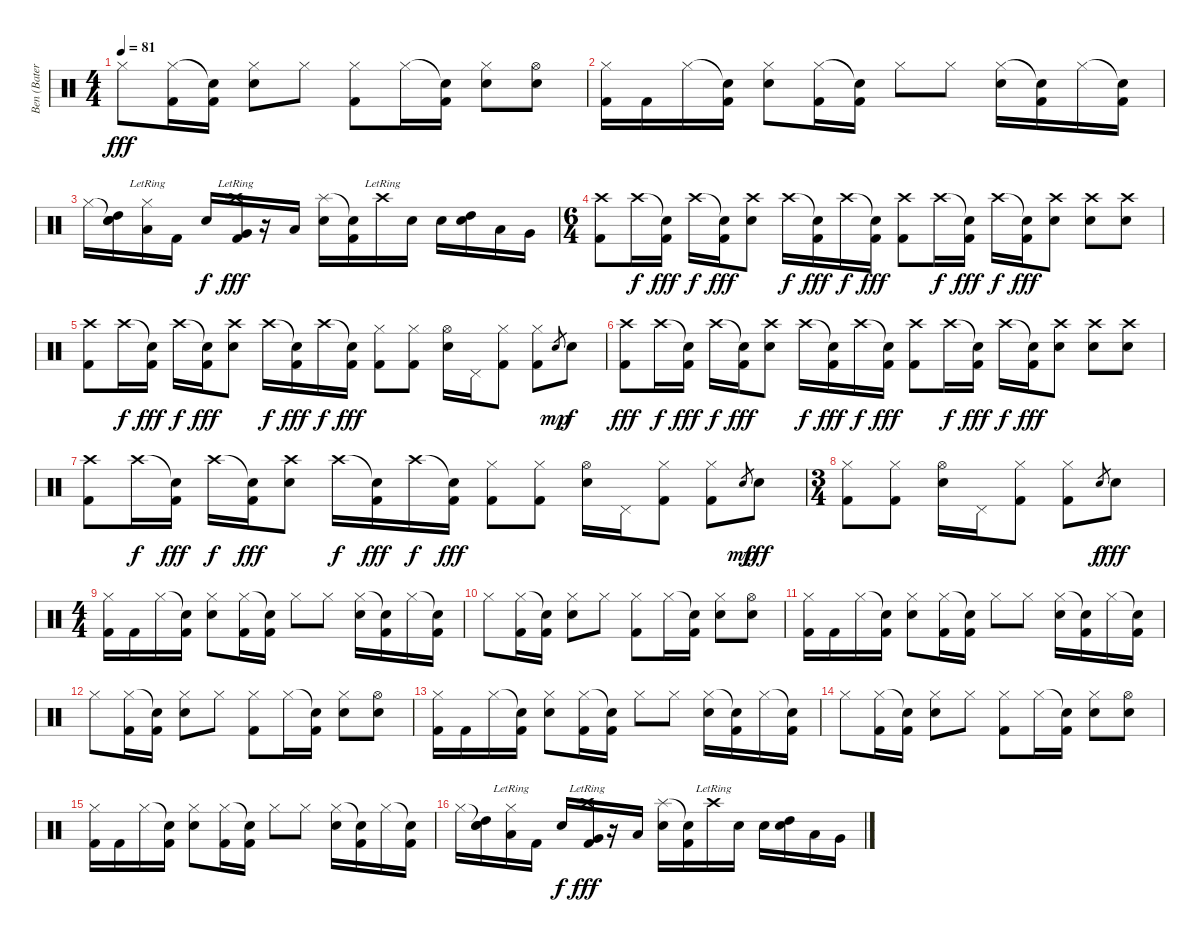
\track ("Ben (Bateria)" "Ben (Bater") {instrument percussion}
\staff {score}
\articulation defaults
\ts (4 4)
\tempo 81
\clef neutral
\ks c "Hi-Hat (closed)".8{dy fff}
("Hi-Hat (closed)" "Kick (hit) 2").16 ("Snare (hit)"{t} "Kick (hit) 2").16 ("Hi-Hat (closed)" "Snare (hit) 2").8 "Hi-Hat (closed)".8 ("Hi-Hat (closed)" "Kick (hit) 2").8 "Hi-Hat (closed)".16 ("Snare (hit)"{t} "Kick (hit) 2").16 ("Hi-Hat (closed)" "Snare (hit) 2").8 ("Hi-Hat (open)" "Snare (hit) 2").8 |
("Hi-Hat (closed)" "Kick (hit) 2").16 "Kick (hit) 2".16 "Hi-Hat (closed)".16 ("Snare (hit)"{t} "Kick (hit) 2").16 ("Hi-Hat (closed)" "Snare (hit) 2").8 ("Hi-Hat (closed)" "Kick (hit) 2").16 ("Snare (hit)"{t} "Kick (hit) 2").16 "Hi-Hat (closed)".8 "Hi-Hat (closed)".8 ("Hi-Hat (closed)" "Snare (hit) 2").16 ("Snare (hit)"{t} "Kick (hit) 2").16 "Hi-Hat (closed)".16 ("Snare (hit)"{t} "Kick (hit) 2").16 |
"Hi-Hat (closed)".16 ("Snare (hit)"{t} "Snare (hit) 2" "High Tom (hit)").16 ("Hi-Hat (closed)"{lr} "Low Tom (hit)").16 "Kick (hit) 2".16 "Snare (hit) 2".16{dy f} ("Crash high (hit)"{lr} "Very Low Tom (hit)" "Kick (hit) 2").16{dy fff} r.16 "Low Tom (hit)".16 ("Splash (hit)" "Snare (hit) 2").16 ("Snare (hit)"{t} "Kick (hit) 2").16 "Crash high (hit)"{lr}.16 "Snare (hit) 2".16 "Snare (hit) 2".16 ("Snare (hit) 2" "High Tom (hit)").16 "Low Tom (hit)".16 "Very Low Tom (hit)".16 |
\ts (6 4)
("Crash high (hit)" "Kick (hit) 2").8 "Crash high (hit)".16{dy f} ("Snare (hit)"{t} "Kick (hit) 2").16{dy fff} "Crash high (hit)".16{dy f} ("Snare (hit)"{t} "Kick (hit) 2").16{dy fff} ("Crash high (hit)" "Snare (hit) 2").8 "Crash high (hit)".16{dy f} ("Snare (hit)"{t} "Kick (hit) 2").16{dy fff} "Crash high (hit)".16{dy f} ("Snare (hit)"{t} "Kick (hit) 2").16{dy fff} ("Crash high (hit)" "Kick (hit) 2").8 "Crash high (hit)".16{dy f} ("Snare (hit)"{t} "Kick (hit) 2").16{dy fff} "Crash high (hit)".16{dy f} ("Snare (hit)"{t} "Kick (hit) 2").16{dy fff} ("Crash high (hit)" "Snare (hit) 2").8 ("Crash high (hit)" "Snare (hit) 2").8 ("Crash high (hit)" "Snare (hit) 2").8 |
("Crash high (hit)" "Kick (hit) 2").8 "Crash high (hit)".16{dy f} ("Snare (hit)"{t} "Kick (hit) 2").16{dy fff} "Crash high (hit)".16{dy f} ("Snare (hit)"{t} "Kick (hit) 2").16{dy fff} ("Crash high (hit)" "Snare (hit) 2").8 "Crash high (hit)".16{dy f} ("Snare (hit)"{t} "Kick (hit) 2").16{dy fff} "Crash high (hit)".16{dy f} ("Snare (hit)"{t} "Kick (hit) 2").16{dy fff} ("Hi-Hat (closed)" "Kick (hit) 2").8 ("Hi-Hat (closed)" "Kick (hit) 2").8 ("Hi-Hat (open)" "Snare (hit) 2").16 "Pedal Hi-Hat (hit)".16 ("Hi-Hat (closed)" "Kick (hit) 2").8 ("Hi-Hat (closed)" "Kick (hit) 2").8 "Snare (hit) 2".8{gr dy mp} "Snare (hit) 2".8{dy f} |
("Crash high (hit)" "Kick (hit) 2").8{dy fff} "Crash high (hit)".16{dy f} ("Snare (hit)"{t} "Kick (hit) 2").16{dy fff} "Crash high (hit)".16{dy f} ("Snare (hit)"{t} "Kick (hit) 2").16{dy fff} ("Crash high (hit)" "Snare (hit) 2").8 "Crash high (hit)".16{dy f} ("Snare (hit)"{t} "Kick (hit) 2").16{dy fff} "Crash high (hit)".16{dy f} ("Snare (hit)"{t} "Kick (hit) 2").16{dy fff} ("Crash high (hit)" "Kick (hit) 2").8 "Crash high (hit)".16{dy f} ("Snare (hit)"{t} "Kick (hit) 2").16{dy fff} "Crash high (hit)".16{dy f} ("Snare (hit)"{t} "Kick (hit) 2").16{dy fff} ("Crash high (hit)" "Snare (hit) 2").8 ("Crash high (hit)" "Snare (hit) 2").8 ("Crash high (hit)" "Snare (hit) 2").8 |
("Crash high (hit)" "Kick (hit) 2").8 "Crash high (hit)".16{dy f} ("Snare (hit)"{t} "Kick (hit) 2").16{dy fff} "Crash high (hit)".16{dy f} ("Snare (hit)"{t} "Kick (hit) 2").16{dy fff} ("Crash high (hit)" "Snare (hit) 2").8 "Crash high (hit)".16{dy f} ("Snare (hit)"{t} "Kick (hit) 2").16{dy fff} "Crash high (hit)".16{dy f} ("Snare (hit)"{t} "Kick (hit) 2").16{dy fff} ("Hi-Hat (closed)" "Kick (hit) 2").8 ("Hi-Hat (closed)" "Kick (hit) 2").8 ("Hi-Hat (open)" "Snare (hit) 2").16 "Pedal Hi-Hat (hit)".16 ("Hi-Hat (closed)" "Kick (hit) 2").8 ("Hi-Hat (closed)" "Kick (hit) 2").8 "Snare (hit) 2".8{gr dy mp} "Snare (hit) 2".8{dy fff} |
\ts (3 4)
("Hi-Hat (closed)" "Kick (hit) 2").8 ("Hi-Hat (closed)" "Kick (hit) 2").8 ("Hi-Hat (open)" "Snare (hit) 2").16 "Pedal Hi-Hat (hit)".16 ("Hi-Hat (closed)" "Kick (hit) 2").8 ("Hi-Hat (closed)" "Kick (hit) 2").8 "Snare (hit) 2".8{gr dy f} "Snare (hit) 2".8{dy fff} |
\ts (4 4)
("Hi-Hat (closed)" "Kick (hit) 2").16 "Kick (hit) 2".16 "Hi-Hat (closed)".16 ("Snare (hit)"{t} "Kick (hit) 2").16 ("Hi-Hat (closed)" "Snare (hit) 2").8 ("Hi-Hat (closed)" "Kick (hit) 2").16 ("Snare (hit)"{t} "Kick (hit) 2").16 "Hi-Hat (closed)".8 "Hi-Hat (closed)".8 ("Hi-Hat (closed)" "Snare (hit) 2").16 ("Snare (hit)"{t} "Kick (hit) 2").16 "Hi-Hat (closed)".16 ("Snare (hit)"{t} "Kick (hit) 2").16 |
"Hi-Hat (closed)".8 ("Hi-Hat (closed)" "Kick (hit) 2").16 ("Snare (hit)"{t} "Kick (hit) 2").16 ("Hi-Hat (closed)" "Snare (hit) 2").8 "Hi-Hat (closed)".8 ("Hi-Hat (closed)" "Kick (hit) 2").8 "Hi-Hat (closed)".16 ("Snare (hit)"{t} "Kick (hit) 2").16 ("Hi-Hat (closed)" "Snare (hit) 2").8 ("Hi-Hat (open)" "Snare (hit) 2").8 |
("Hi-Hat (closed)" "Kick (hit) 2").16 "Kick (hit) 2".16 "Hi-Hat (closed)".16 ("Snare (hit)"{t} "Kick (hit) 2").16 ("Hi-Hat (closed)" "Snare (hit) 2").8 ("Hi-Hat (closed)" "Kick (hit) 2").16 ("Snare (hit)"{t} "Kick (hit) 2").16 "Hi-Hat (closed)".8 "Hi-Hat (closed)".8 ("Hi-Hat (closed)" "Snare (hit) 2").16 ("Snare (hit)"{t} "Kick (hit) 2").16 "Hi-Hat (closed)".16 ("Snare (hit)"{t} "Kick (hit) 2").16 |
"Hi-Hat (closed)".8 ("Hi-Hat (closed)" "Kick (hit) 2").16 ("Snare (hit)"{t} "Kick (hit) 2").16 ("Hi-Hat (closed)" "Snare (hit) 2").8 "Hi-Hat (closed)".8 ("Hi-Hat (closed)" "Kick (hit) 2").8 "Hi-Hat (closed)".16 ("Snare (hit)"{t} "Kick (hit) 2").16 ("Hi-Hat (closed)" "Snare (hit) 2").8 ("Hi-Hat (open)" "Snare (hit) 2").8 |
("Hi-Hat (closed)" "Kick (hit) 2").16 "Kick (hit) 2".16 "Hi-Hat (closed)".16 ("Snare (hit)"{t} "Kick (hit) 2").16 ("Hi-Hat (closed)" "Snare (hit) 2").8 ("Hi-Hat (closed)" "Kick (hit) 2").16 ("Snare (hit)"{t} "Kick (hit) 2").16 "Hi-Hat (closed)".8 "Hi-Hat (closed)".8 ("Hi-Hat (closed)" "Snare (hit) 2").16 ("Snare (hit)"{t} "Kick (hit) 2").16 "Hi-Hat (closed)".16 ("Snare (hit)"{t} "Kick (hit) 2").16 |
"Hi-Hat (closed)".8 ("Hi-Hat (closed)" "Kick (hit) 2").16 ("Snare (hit)"{t} "Kick (hit) 2").16 ("Hi-Hat (closed)" "Snare (hit) 2").8 "Hi-Hat (closed)".8 ("Hi-Hat (closed)" "Kick (hit) 2").8 "Hi-Hat (closed)".16 ("Snare (hit)"{t} "Kick (hit) 2").16 ("Hi-Hat (closed)" "Snare (hit) 2").8 ("Hi-Hat (open)" "Snare (hit) 2").8 |
("Hi-Hat (closed)" "Kick (hit) 2").16 "Kick (hit) 2".16 "Hi-Hat (closed)".16 ("Snare (hit)"{t} "Kick (hit) 2").16 ("Hi-Hat (closed)" "Snare (hit) 2").8 ("Hi-Hat (closed)" "Kick (hit) 2").16 ("Snare (hit)"{t} "Kick (hit) 2").16 "Hi-Hat (closed)".8 "Hi-Hat (closed)".8 ("Hi-Hat (closed)" "Snare (hit) 2").16 ("Snare (hit)"{t} "Kick (hit) 2").16 "Hi-Hat (closed)".16 ("Snare (hit)"{t} "Kick (hit) 2").16 |
"Hi-Hat (closed)".16 ("Snare (hit)"{t} "Snare (hit) 2" "High Tom (hit)").16 ("Hi-Hat (closed)"{lr} "Low Tom (hit)").16 "Kick (hit) 2".16 "Snare (hit) 2".16{dy f} ("Crash high (hit)"{lr} "Very Low Tom (hit)" "Kick (hit) 2").16{dy fff} r.16 "Low Tom (hit)".16 ("Splash (hit)" "Snare (hit) 2").16 ("Snare (hit)"{t} "Kick (hit) 2").16 "Crash high (hit)"{lr}.16 "Snare (hit) 2".16 "Snare (hit) 2".16 ("Snare (hit) 2" "High Tom (hit)").16 "Low Tom (hit)".16 "Very Low Tom (hit)".16
